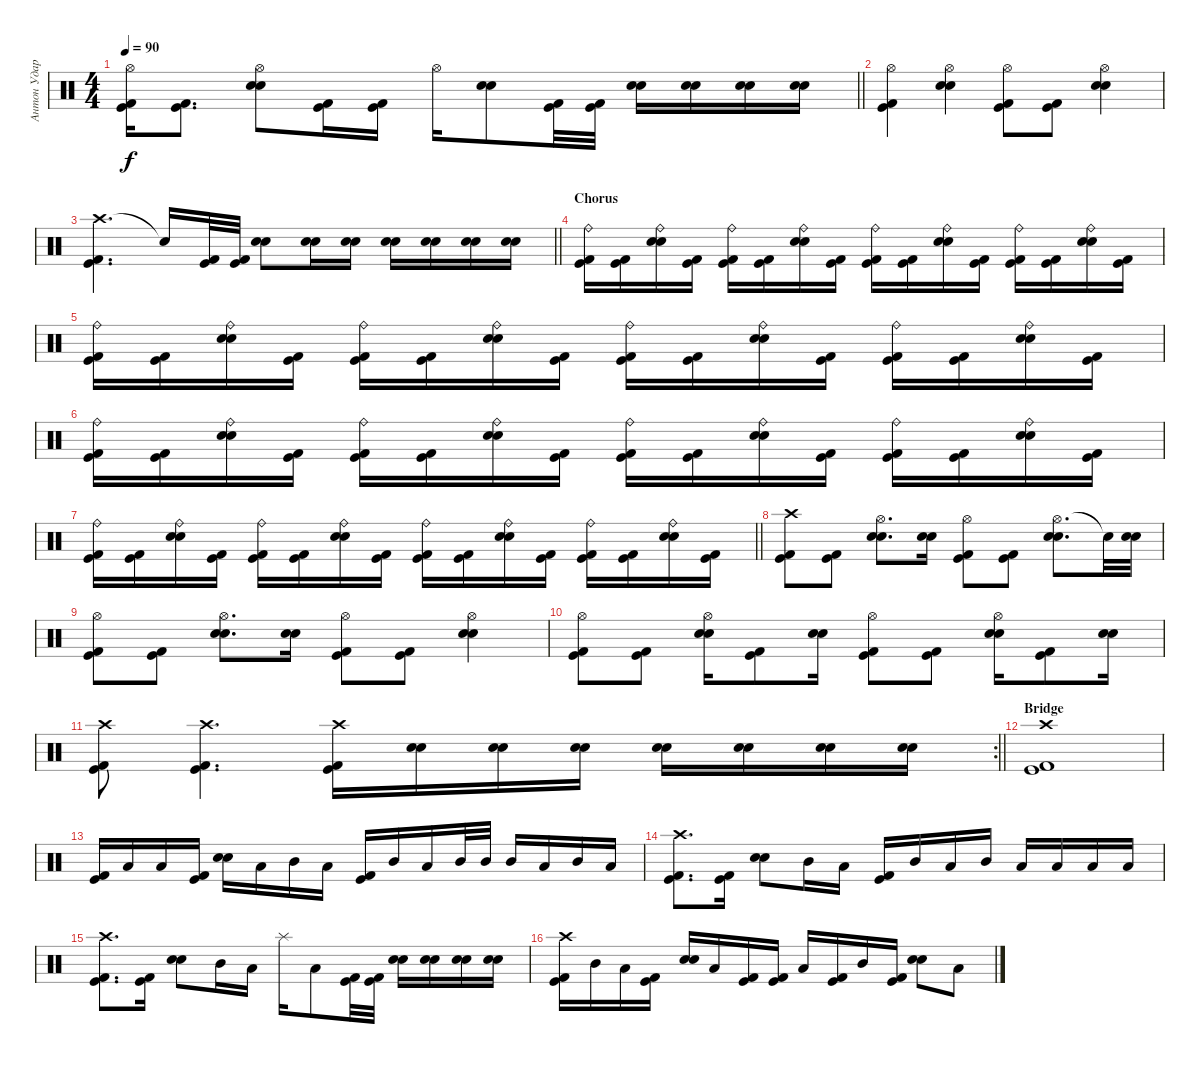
\track ("Антон Ударные" "Антон Удар") {instrument percussion}
\staff {score}
\articulation defaults
\ts (4 4)
\tempo 90
\clef neutral
\barLineRight lightlight
\ks c
("Hi-Hat (open)" "Kick (hit) 2" "Kick (hit)").16{dy f} ("Kick (hit) 2" "Kick (hit)").8{d} ("Hi-Hat (open)" "Electric Snare (hit)" "Snare (hit) 2").8 ("Kick (hit) 2" "Kick (hit)").16 ("Kick (hit) 2" "Kick (hit)").16 "Hi-Hat (open)".16 ("Electric Snare (hit)" "Snare (hit) 2").8 ("Kick (hit) 2" "Kick (hit)").32 ("Kick (hit) 2" "Kick (hit)").32 ("Electric Snare (hit)" "Snare (hit) 2").16 ("Electric Snare (hit)" "Snare (hit) 2").16 ("Electric Snare (hit)" "Snare (hit) 2").16 ("Electric Snare (hit)" "Snare (hit) 2").16 |
\section ("" "")
("Hi-Hat (open)" "Kick (hit) 2" "Kick (hit)").4 ("Hi-Hat (open)" "Electric Snare (hit)" "Snare (hit) 2").4 ("Hi-Hat (open)" "Kick (hit) 2" "Kick (hit)").8 ("Kick (hit) 2" "Kick (hit)").8 ("Hi-Hat (open)" "Electric Snare (hit)" "Snare (hit) 2").4 |
\barLineRight lightlight
("Crash high (hit)" "Kick (hit) 2" "Kick (hit)").4{d} "Snare (hit)"{t}.16 ("Kick (hit) 2" "Kick (hit)").32 ("Kick (hit) 2" "Kick (hit)").32 ("Electric Snare (hit)" "Snare (hit) 2").8 ("Electric Snare (hit)" "Snare (hit) 2").16 ("Electric Snare (hit)" "Snare (hit) 2").16 ("Electric Snare (hit)" "Snare (hit) 2").16 ("Electric Snare (hit)" "Snare (hit) 2").16 ("Electric Snare (hit)" "Snare (hit) 2").16 ("Electric Snare (hit)" "Snare (hit) 2").16 |
\section ("" "Chorus")
("Ride (bell)" "Kick (hit) 2" "Kick (hit)").16 ("Kick (hit) 2" "Kick (hit)").16 ("Ride (bell)" "Electric Snare (hit)" "Snare (hit) 2").16 ("Kick (hit) 2" "Kick (hit)").16 ("Ride (bell)" "Kick (hit) 2" "Kick (hit)").16 ("Kick (hit) 2" "Kick (hit)").16 ("Ride (bell)" "Electric Snare (hit)" "Snare (hit) 2").16 ("Kick (hit) 2" "Kick (hit)").16 ("Ride (bell)" "Kick (hit) 2" "Kick (hit)").16 ("Kick (hit) 2" "Kick (hit)").16 ("Ride (bell)" "Electric Snare (hit)" "Snare (hit) 2").16 ("Kick (hit) 2" "Kick (hit)").16 ("Ride (bell)" "Kick (hit) 2" "Kick (hit)").16 ("Kick (hit) 2" "Kick (hit)").16 ("Ride (bell)" "Electric Snare (hit)" "Snare (hit) 2").16 ("Kick (hit) 2" "Kick (hit)").16 |
("Ride (bell)" "Kick (hit) 2" "Kick (hit)").16 ("Kick (hit) 2" "Kick (hit)").16 ("Ride (bell)" "Electric Snare (hit)" "Snare (hit) 2").16 ("Kick (hit) 2" "Kick (hit)").16 ("Ride (bell)" "Kick (hit) 2" "Kick (hit)").16 ("Kick (hit) 2" "Kick (hit)").16 ("Ride (bell)" "Electric Snare (hit)" "Snare (hit) 2").16 ("Kick (hit) 2" "Kick (hit)").16 ("Ride (bell)" "Kick (hit) 2" "Kick (hit)").16 ("Kick (hit) 2" "Kick (hit)").16 ("Ride (bell)" "Electric Snare (hit)" "Snare (hit) 2").16 ("Kick (hit) 2" "Kick (hit)").16 ("Ride (bell)" "Kick (hit) 2" "Kick (hit)").16 ("Kick (hit) 2" "Kick (hit)").16 ("Ride (bell)" "Electric Snare (hit)" "Snare (hit) 2").16 ("Kick (hit) 2" "Kick (hit)").16 |
("Ride (bell)" "Kick (hit) 2" "Kick (hit)").16 ("Kick (hit) 2" "Kick (hit)").16 ("Ride (bell)" "Electric Snare (hit)" "Snare (hit) 2").16 ("Kick (hit) 2" "Kick (hit)").16 ("Ride (bell)" "Kick (hit) 2" "Kick (hit)").16 ("Kick (hit) 2" "Kick (hit)").16 ("Ride (bell)" "Electric Snare (hit)" "Snare (hit) 2").16 ("Kick (hit) 2" "Kick (hit)").16 ("Ride (bell)" "Kick (hit) 2" "Kick (hit)").16 ("Kick (hit) 2" "Kick (hit)").16 ("Ride (bell)" "Electric Snare (hit)" "Snare (hit) 2").16 ("Kick (hit) 2" "Kick (hit)").16 ("Ride (bell)" "Kick (hit) 2" "Kick (hit)").16 ("Kick (hit) 2" "Kick (hit)").16 ("Ride (bell)" "Electric Snare (hit)" "Snare (hit) 2").16 ("Kick (hit) 2" "Kick (hit)").16 |
\barLineRight lightlight
("Ride (bell)" "Kick (hit) 2" "Kick (hit)").16 ("Kick (hit) 2" "Kick (hit)").16 ("Ride (bell)" "Electric Snare (hit)" "Snare (hit) 2").16 ("Kick (hit) 2" "Kick (hit)").16 ("Ride (bell)" "Kick (hit) 2" "Kick (hit)").16 ("Kick (hit) 2" "Kick (hit)").16 ("Ride (bell)" "Electric Snare (hit)" "Snare (hit) 2").16 ("Kick (hit) 2" "Kick (hit)").16 ("Ride (bell)" "Kick (hit) 2" "Kick (hit)").16 ("Kick (hit) 2" "Kick (hit)").16 ("Ride (bell)" "Electric Snare (hit)" "Snare (hit) 2").16 ("Kick (hit) 2" "Kick (hit)").16 ("Ride (bell)" "Kick (hit) 2" "Kick (hit)").16 ("Kick (hit) 2" "Kick (hit)").16 ("Ride (bell)" "Electric Snare (hit)" "Snare (hit) 2").16 ("Kick (hit) 2" "Kick (hit)").16 |
\section ("" "")
("Crash high (hit)" "Kick (hit) 2" "Kick (hit)").8 ("Kick (hit) 2" "Kick (hit)").8 ("Hi-Hat (open)" "Electric Snare (hit)" "Snare (hit) 2").8{d} ("Electric Snare (hit)" "Snare (hit) 2").16 ("Hi-Hat (open)" "Kick (hit) 2" "Kick (hit)").8 ("Kick (hit) 2" "Kick (hit)").8 ("Hi-Hat (open)" "Electric Snare (hit)" "Snare (hit) 2").8{d} "Snare (hit)"{t}.32 ("Electric Snare (hit)" "Snare (hit) 2").32 |
("Hi-Hat (open)" "Kick (hit) 2" "Kick (hit)").8 ("Kick (hit) 2" "Kick (hit)").8 ("Hi-Hat (open)" "Electric Snare (hit)" "Snare (hit) 2").8{d} ("Electric Snare (hit)" "Snare (hit) 2").16 ("Hi-Hat (open)" "Kick (hit) 2" "Kick (hit)").8 ("Kick (hit) 2" "Kick (hit)").8 ("Hi-Hat (open)" "Electric Snare (hit)" "Snare (hit) 2").4 |
("Hi-Hat (open)" "Kick (hit) 2" "Kick (hit)").8 ("Kick (hit) 2" "Kick (hit)").8 ("Hi-Hat (open)" "Electric Snare (hit)" "Snare (hit) 2").16 ("Kick (hit) 2" "Kick (hit)").8 ("Electric Snare (hit)" "Snare (hit) 2").16 ("Hi-Hat (open)" "Kick (hit) 2" "Kick (hit)").8 ("Kick (hit) 2" "Kick (hit)").8 ("Hi-Hat (open)" "Electric Snare (hit)" "Snare (hit) 2").16 ("Kick (hit) 2" "Kick (hit)").8 ("Electric Snare (hit)" "Snare (hit) 2").16 |
\rc 2
\barLineRight lightlight
("Crash high (hit)" "Kick (hit) 2" "Kick (hit)").8 ("Crash high (hit)" "Kick (hit) 2" "Kick (hit)").4{d} ("Crash high (hit)" "Kick (hit) 2" "Kick (hit)").16 ("Electric Snare (hit)" "Snare (hit) 2").16{bd 120} ("Electric Snare (hit)" "Snare (hit) 2").16 ("Electric Snare (hit)" "Snare (hit) 2").16 ("Electric Snare (hit)" "Snare (hit) 2").16 ("Electric Snare (hit)" "Snare (hit) 2").16 ("Electric Snare (hit)" "Snare (hit) 2").16 ("Electric Snare (hit)" "Snare (hit) 2").16 |
\section ("" "Bridge")
("Crash high (hit)" "Kick (hit) 2" "Kick (hit)").1 |
("Kick (hit) 2" "Kick (hit)").16 "Low Floor Tom (hit)".16 "Low Floor Tom (hit)".16 ("Kick (hit) 2" "Kick (hit)").16 ("Electric Snare (hit)" "Snare (hit) 2").16 "Low Floor Tom (hit)".16 "Mid Tom (hit)".16 "Low Tom (hit)".16 ("Kick (hit) 2" "Kick (hit)").16 "Mid Tom (hit)".16 "Low Tom (hit)".16 "Mid Tom (hit)".32 "Mid Tom (hit)".32 "Mid Tom (hit)".16 "Low Tom (hit)".16 "Mid Tom (hit)".16 "Low Floor Tom (hit)".16 |
("Crash high (hit)" "Kick (hit) 2" "Kick (hit)").8{d} ("Kick (hit) 2" "Kick (hit)").16 ("Electric Snare (hit)" "Snare (hit) 2").8 "Mid Tom (hit)".16 "Low Tom (hit)".16 ("Kick (hit) 2" "Kick (hit)").16 "Mid Tom (hit)".16 "Low Tom (hit)".16 "Mid Tom (hit)".16 "Low Tom (hit)".16 "Low Tom (hit)".16 "Low Floor Tom (hit)".16 "Low Floor Tom (hit)".16 |
("Crash high (hit)" "Kick (hit) 2" "Kick (hit)").8{d} ("Kick (hit) 2" "Kick (hit)").16 ("Electric Snare (hit)" "Snare (hit) 2").8 "Mid Tom (hit)".16 "Low Tom (hit)".16 "Splash (hit)".16 "Low Floor Tom (hit)".8 ("Kick (hit) 2" "Kick (hit)").32 ("Kick (hit) 2" "Kick (hit)").32 ("Electric Snare (hit)" "Snare (hit) 2").16 ("Electric Snare (hit)" "Snare (hit) 2").16 ("Electric Snare (hit)" "Snare (hit) 2").16 ("Electric Snare (hit)" "Snare (hit) 2").16 |
("Crash high (hit)" "Kick (hit) 2" "Kick (hit)").16 "Mid Tom (hit)".16 "Low Tom (hit)".16 ("Kick (hit) 2" "Kick (hit)").16 ("Electric Snare (hit)" "Snare (hit) 2").16 "Low Tom (hit)".16 ("Kick (hit) 2" "Kick (hit)").16 ("Kick (hit) 2" "Kick (hit)").16 "Low Floor Tom (hit)".16 ("Kick (hit) 2" "Kick (hit)").16 "Mid Tom (hit)".16 ("Kick (hit) 2" "Kick (hit)").16 ("Electric Snare (hit)" "Snare (hit) 2").8 "Low Tom (hit)".8
